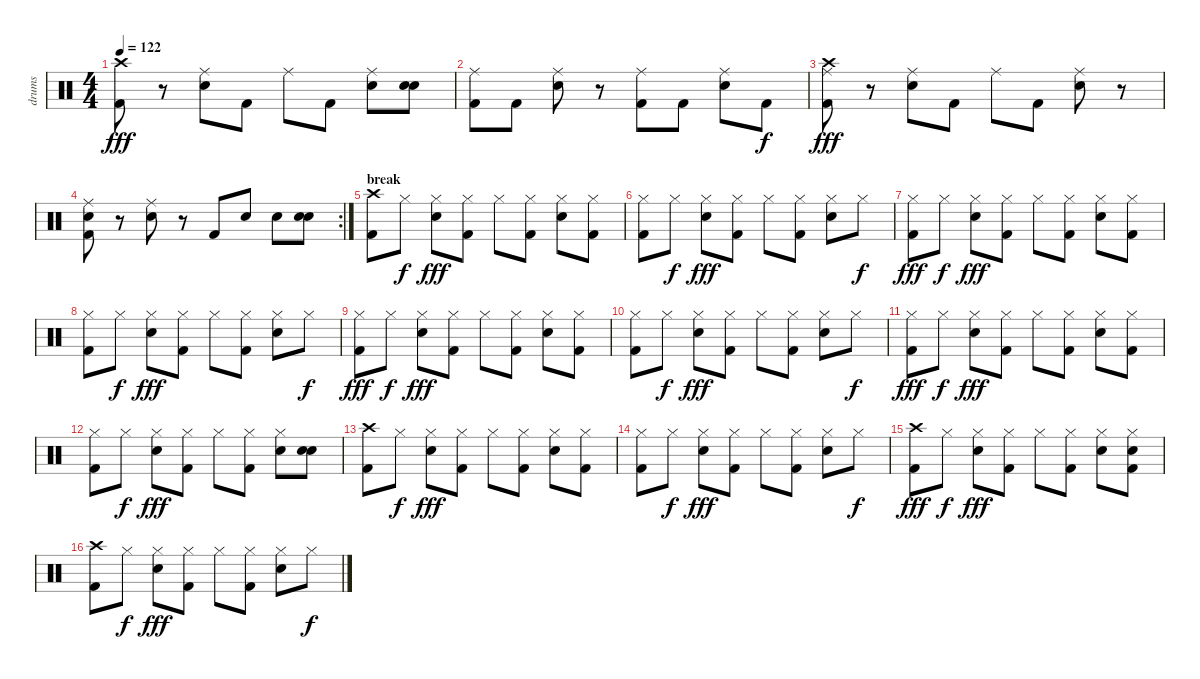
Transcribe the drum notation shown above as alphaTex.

\track ("drums" "drums") {instrument percussion}
\staff {score}
\articulation defaults
\ts (4 4)
\tempo 122
\clef neutral
\ks c
("Crash high (hit)" "Kick (hit) 2").8{dy fff} r.8 ("Electric Snare (hit)" "Ride (middle)").8 "Kick (hit) 2".8 "Ride (middle)".8 "Kick (hit) 2".8 ("Ride (middle)" "Electric Snare (hit)").8 ("Electric Snare (hit)" "Electric Snare (hit)").8 |
("Kick (hit) 2" "Ride (middle)").8 "Kick (hit) 2".8 ("Electric Snare (hit)" "Ride (middle)").8 r.8 ("Kick (hit) 2" "Ride (middle)").8 "Kick (hit) 2".8 ("Electric Snare (hit)" "Ride (middle)").8 "Kick (hit) 2".8{dy f} |
("Ride (middle)" "Crash high (hit)" "Kick (hit) 2").8{dy fff} r.8 ("Electric Snare (hit)" "Ride (middle)").8 "Kick (hit) 2".8 "Ride (middle)".8 "Kick (hit) 2".8 ("Ride (middle)" "Electric Snare (hit)").8 r.8 |
\rc 2
("Electric Snare (hit)" "Kick (hit) 2" "Ride (middle)").8 r.8 ("Electric Snare (hit)" "Ride (middle)").8 r.8 "Kick (hit) 2".8 "Electric Snare (hit)".8 "Electric Snare (hit)".8 ("Electric Snare (hit)" "Electric Snare (hit)").8 |
\section ("" "break")
("Crash high (hit)" "Kick (hit) 2").8 "Hi-Hat (closed)".8{dy f} ("Electric Snare (hit)" "Hi-Hat (closed)").8{dy fff} ("Kick (hit) 2" "Hi-Hat (closed)").8 "Hi-Hat (closed)".8 ("Kick (hit) 2" "Hi-Hat (closed)").8 ("Hi-Hat (closed)" "Electric Snare (hit)").8 ("Hi-Hat (closed)" "Kick (hit) 2").8 |
("Hi-Hat (closed)" "Kick (hit) 2").8 "Hi-Hat (closed)".8{dy f} ("Hi-Hat (closed)" "Electric Snare (hit)").8{dy fff} ("Hi-Hat (closed)" "Kick (hit) 2").8 "Hi-Hat (closed)".8 ("Kick (hit) 2" "Hi-Hat (closed)").8 ("Hi-Hat (closed)" "Electric Snare (hit)").8 "Hi-Hat (closed)".8{dy f} |
("Kick (hit) 2" "Hi-Hat (closed)").8{dy fff} "Hi-Hat (closed)".8{dy f} ("Hi-Hat (closed)" "Electric Snare (hit)").8{dy fff} ("Hi-Hat (closed)" "Kick (hit) 2").8 "Hi-Hat (closed)".8 ("Hi-Hat (closed)" "Kick (hit) 2").8 ("Hi-Hat (closed)" "Electric Snare (hit)").8 ("Kick (hit) 2" "Hi-Hat (closed)").8 |
("Hi-Hat (closed)" "Kick (hit) 2").8 "Hi-Hat (closed)".8{dy f} ("Hi-Hat (closed)" "Electric Snare (hit)").8{dy fff} ("Kick (hit) 2" "Hi-Hat (closed)").8 "Hi-Hat (closed)".8 ("Hi-Hat (closed)" "Kick (hit) 2").8 ("Hi-Hat (closed)" "Electric Snare (hit)").8 "Hi-Hat (closed)".8{dy f} |
("Kick (hit) 2" "Hi-Hat (closed)").8{dy fff} "Hi-Hat (closed)".8{dy f} ("Hi-Hat (closed)" "Electric Snare (hit)").8{dy fff} ("Hi-Hat (closed)" "Kick (hit) 2").8 "Hi-Hat (closed)".8 ("Hi-Hat (closed)" "Kick (hit) 2").8 ("Electric Snare (hit)" "Hi-Hat (closed)").8 ("Hi-Hat (closed)" "Kick (hit) 2").8 |
("Hi-Hat (closed)" "Kick (hit) 2").8 "Hi-Hat (closed)".8{dy f} ("Electric Snare (hit)" "Hi-Hat (closed)").8{dy fff} ("Hi-Hat (closed)" "Kick (hit) 2").8 "Hi-Hat (closed)".8 ("Hi-Hat (closed)" "Kick (hit) 2").8 ("Hi-Hat (closed)" "Electric Snare (hit)").8 "Hi-Hat (closed)".8{dy f} |
("Kick (hit) 2" "Hi-Hat (closed)").8{dy fff} "Hi-Hat (closed)".8{dy f} ("Electric Snare (hit)" "Hi-Hat (closed)").8{dy fff} ("Hi-Hat (closed)" "Kick (hit) 2").8 "Hi-Hat (closed)".8 ("Hi-Hat (closed)" "Kick (hit) 2").8 ("Hi-Hat (closed)" "Electric Snare (hit)").8 ("Kick (hit) 2" "Hi-Hat (closed)").8 |
("Hi-Hat (closed)" "Kick (hit) 2").8 "Hi-Hat (closed)".8{dy f} ("Hi-Hat (closed)" "Electric Snare (hit)").8{dy fff} ("Kick (hit) 2" "Hi-Hat (closed)").8 "Hi-Hat (closed)".8 ("Hi-Hat (closed)" "Kick (hit) 2").8 ("Electric Snare (hit)" "Hi-Hat (closed)").8 ("Electric Snare (hit)" "Electric Snare (hit)").8 |
("Crash high (hit)" "Kick (hit) 2").8 "Hi-Hat (closed)".8{dy f} ("Electric Snare (hit)" "Hi-Hat (closed)").8{dy fff} ("Hi-Hat (closed)" "Kick (hit) 2").8 "Hi-Hat (closed)".8 ("Kick (hit) 2" "Hi-Hat (closed)").8 ("Hi-Hat (closed)" "Electric Snare (hit)").8 ("Kick (hit) 2" "Hi-Hat (closed)").8 |
("Hi-Hat (closed)" "Kick (hit) 2").8 "Hi-Hat (closed)".8{dy f} ("Electric Snare (hit)" "Hi-Hat (closed)").8{dy fff} ("Kick (hit) 2" "Hi-Hat (closed)").8 "Hi-Hat (closed)".8 ("Hi-Hat (closed)" "Kick (hit) 2").8 ("Hi-Hat (closed)" "Electric Snare (hit)").8 "Hi-Hat (closed)".8{dy f} |
("Crash high (hit)" "Kick (hit) 2").8{dy fff} "Hi-Hat (closed)".8{dy f} ("Electric Snare (hit)" "Hi-Hat (closed)").8{dy fff} ("Kick (hit) 2" "Hi-Hat (closed)").8 "Hi-Hat (closed)".8 ("Kick (hit) 2" "Hi-Hat (closed)").8 ("Electric Snare (hit)" "Hi-Hat (closed)").8 ("Hi-Hat (closed)" "Kick (hit) 2" "Electric Snare (hit)").8 |
("Crash high (hit)" "Kick (hit) 2").8 "Hi-Hat (closed)".8{dy f} ("Hi-Hat (closed)" "Electric Snare (hit)").8{dy fff} ("Hi-Hat (closed)" "Kick (hit) 2").8 "Hi-Hat (closed)".8 ("Hi-Hat (closed)" "Kick (hit) 2").8 ("Hi-Hat (closed)" "Electric Snare (hit)").8 "Hi-Hat (closed)".8{dy f}
